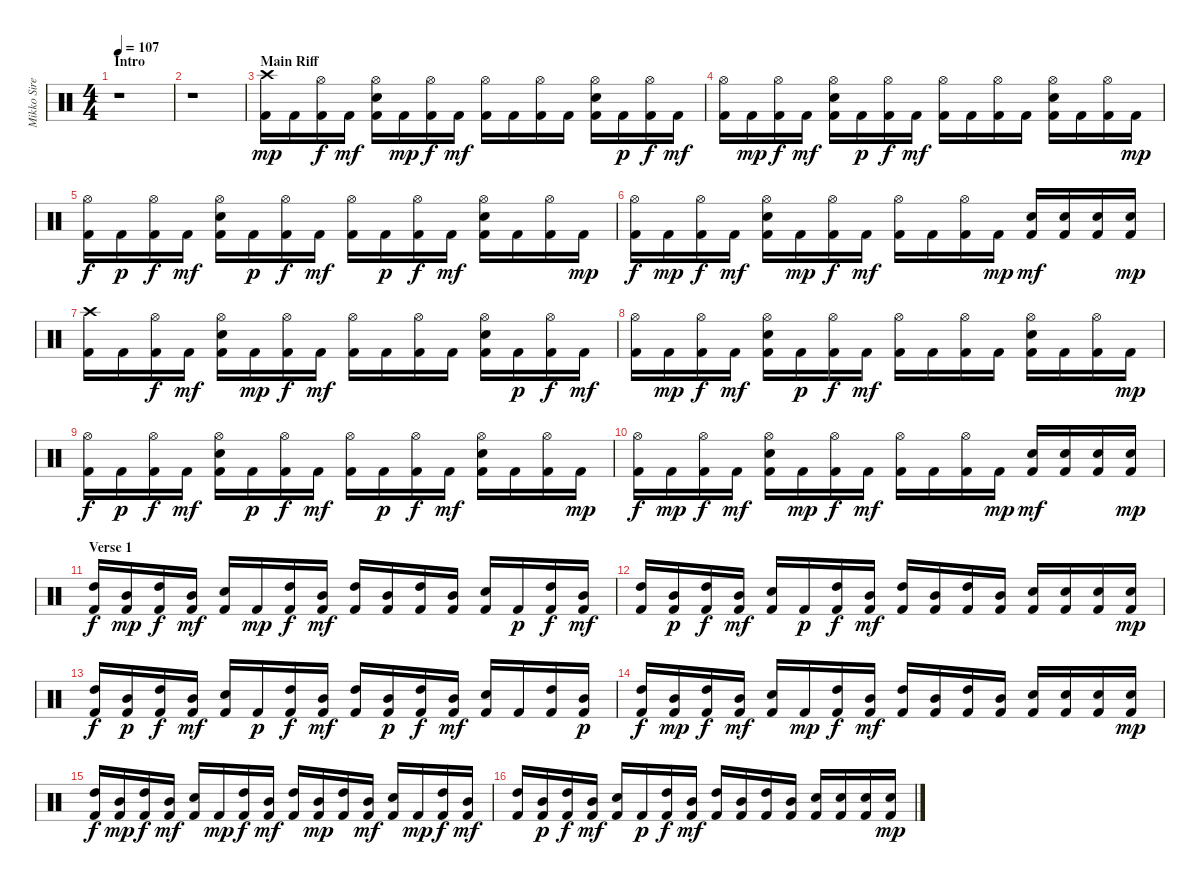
\track ("Mikko Siren" "Mikko Sire") {instrument percussion}
\staff {score}
\articulation defaults
\ts (4 4)
\section ("" "Intro")
\tempo 107
\clef neutral
\ks c
r.1{dy mp} |
r.1 |
\section ("" "Main Riff")
("Kick (hit) 2" "Crash high (hit)").16 "Kick (hit) 2".16 ("Kick (hit) 2" "Hi-Hat (open)").16{dy f} "Kick (hit) 2".16{dy mf} ("Kick (hit) 2" "Electric Snare (hit)" "Hi-Hat (open)").16 "Kick (hit) 2".16{dy mp} ("Kick (hit) 2" "Hi-Hat (open)").16{dy f} "Kick (hit) 2".16{dy mf} ("Kick (hit) 2" "Hi-Hat (open)").16 "Kick (hit) 2".16 ("Kick (hit) 2" "Hi-Hat (open)").16 "Kick (hit) 2".16 ("Kick (hit) 2" "Electric Snare (hit)" "Hi-Hat (open)").16 "Kick (hit) 2".16{dy p} ("Kick (hit) 2" "Hi-Hat (open)").16{dy f} "Kick (hit) 2".16{dy mf} |
("Kick (hit) 2" "Hi-Hat (open)").16 "Kick (hit) 2".16{dy mp} ("Kick (hit) 2" "Hi-Hat (open)").16{dy f} "Kick (hit) 2".16{dy mf} ("Kick (hit) 2" "Electric Snare (hit)" "Hi-Hat (open)").16 "Kick (hit) 2".16{dy p} ("Kick (hit) 2" "Hi-Hat (open)").16{dy f} "Kick (hit) 2".16{dy mf} ("Kick (hit) 2" "Hi-Hat (open)").16 "Kick (hit) 2".16 ("Kick (hit) 2" "Hi-Hat (open)").16 "Kick (hit) 2".16 ("Kick (hit) 2" "Electric Snare (hit)" "Hi-Hat (open)").16 "Kick (hit) 2".16 ("Kick (hit) 2" "Hi-Hat (open)").16 "Kick (hit) 2".16{dy mp} |
("Kick (hit) 2" "Hi-Hat (open)").16{dy f} "Kick (hit) 2".16{dy p} ("Kick (hit) 2" "Hi-Hat (open)").16{dy f} "Kick (hit) 2".16{dy mf} ("Kick (hit) 2" "Electric Snare (hit)" "Hi-Hat (open)").16 "Kick (hit) 2".16{dy p} ("Kick (hit) 2" "Hi-Hat (open)").16{dy f} "Kick (hit) 2".16{dy mf} ("Kick (hit) 2" "Hi-Hat (open)").16 "Kick (hit) 2".16{dy p} ("Kick (hit) 2" "Hi-Hat (open)").16{dy f} "Kick (hit) 2".16{dy mf} ("Kick (hit) 2" "Electric Snare (hit)" "Hi-Hat (open)").16 "Kick (hit) 2".16 ("Kick (hit) 2" "Hi-Hat (open)").16 "Kick (hit) 2".16{dy mp} |
("Kick (hit) 2" "Hi-Hat (open)").16{dy f} "Kick (hit) 2".16{dy mp} ("Kick (hit) 2" "Hi-Hat (open)").16{dy f} "Kick (hit) 2".16{dy mf} ("Kick (hit) 2" "Electric Snare (hit)" "Hi-Hat (open)").16 "Kick (hit) 2".16{dy mp} ("Kick (hit) 2" "Hi-Hat (open)").16{dy f} "Kick (hit) 2".16{dy mf} ("Kick (hit) 2" "Hi-Hat (open)").16 "Kick (hit) 2".16 ("Kick (hit) 2" "Hi-Hat (open)").16 "Kick (hit) 2".16{dy mp} ("Kick (hit) 2" "Electric Snare (hit)").16{dy mf} ("Kick (hit) 2" "Electric Snare (hit)").16 ("Kick (hit) 2" "Electric Snare (hit)").16 ("Kick (hit) 2" "Electric Snare (hit)").16{dy mp} |
("Kick (hit) 2" "Crash high (hit)").16 "Kick (hit) 2".16 ("Kick (hit) 2" "Hi-Hat (open)").16{dy f} "Kick (hit) 2".16{dy mf} ("Kick (hit) 2" "Electric Snare (hit)" "Hi-Hat (open)").16 "Kick (hit) 2".16{dy mp} ("Kick (hit) 2" "Hi-Hat (open)").16{dy f} "Kick (hit) 2".16{dy mf} ("Kick (hit) 2" "Hi-Hat (open)").16 "Kick (hit) 2".16 ("Kick (hit) 2" "Hi-Hat (open)").16 "Kick (hit) 2".16 ("Kick (hit) 2" "Electric Snare (hit)" "Hi-Hat (open)").16 "Kick (hit) 2".16{dy p} ("Kick (hit) 2" "Hi-Hat (open)").16{dy f} "Kick (hit) 2".16{dy mf} |
("Kick (hit) 2" "Hi-Hat (open)").16 "Kick (hit) 2".16{dy mp} ("Kick (hit) 2" "Hi-Hat (open)").16{dy f} "Kick (hit) 2".16{dy mf} ("Kick (hit) 2" "Electric Snare (hit)" "Hi-Hat (open)").16 "Kick (hit) 2".16{dy p} ("Kick (hit) 2" "Hi-Hat (open)").16{dy f} "Kick (hit) 2".16{dy mf} ("Kick (hit) 2" "Hi-Hat (open)").16 "Kick (hit) 2".16 ("Kick (hit) 2" "Hi-Hat (open)").16 "Kick (hit) 2".16 ("Kick (hit) 2" "Electric Snare (hit)" "Hi-Hat (open)").16 "Kick (hit) 2".16 ("Kick (hit) 2" "Hi-Hat (open)").16 "Kick (hit) 2".16{dy mp} |
("Kick (hit) 2" "Hi-Hat (open)").16{dy f} "Kick (hit) 2".16{dy p} ("Kick (hit) 2" "Hi-Hat (open)").16{dy f} "Kick (hit) 2".16{dy mf} ("Kick (hit) 2" "Electric Snare (hit)" "Hi-Hat (open)").16 "Kick (hit) 2".16{dy p} ("Kick (hit) 2" "Hi-Hat (open)").16{dy f} "Kick (hit) 2".16{dy mf} ("Kick (hit) 2" "Hi-Hat (open)").16 "Kick (hit) 2".16{dy p} ("Kick (hit) 2" "Hi-Hat (open)").16{dy f} "Kick (hit) 2".16{dy mf} ("Kick (hit) 2" "Electric Snare (hit)" "Hi-Hat (open)").16 "Kick (hit) 2".16 ("Kick (hit) 2" "Hi-Hat (open)").16 "Kick (hit) 2".16{dy mp} |
("Kick (hit) 2" "Hi-Hat (open)").16{dy f} "Kick (hit) 2".16{dy mp} ("Kick (hit) 2" "Hi-Hat (open)").16{dy f} "Kick (hit) 2".16{dy mf} ("Kick (hit) 2" "Electric Snare (hit)" "Hi-Hat (open)").16 "Kick (hit) 2".16{dy mp} ("Kick (hit) 2" "Hi-Hat (open)").16{dy f} "Kick (hit) 2".16{dy mf} ("Kick (hit) 2" "Hi-Hat (open)").16 "Kick (hit) 2".16 ("Kick (hit) 2" "Hi-Hat (open)").16 "Kick (hit) 2".16{dy mp} ("Kick (hit) 2" "Electric Snare (hit)").16{dy mf} ("Kick (hit) 2" "Electric Snare (hit)").16 ("Kick (hit) 2" "Electric Snare (hit)").16 ("Kick (hit) 2" "Electric Snare (hit)").16{dy mp} |
\section ("" "Verse 1")
("Kick (hit) 2" "High Tom (hit)").16{dy f} ("Kick (hit) 2" "Mid Tom (hit)").16{dy mp} ("Kick (hit) 2" "High Tom (hit)").16{dy f} ("Kick (hit) 2" "Mid Tom (hit)").16{dy mf} ("Kick (hit) 2" "Electric Snare (hit)").16 "Kick (hit) 2".16{dy mp} ("Kick (hit) 2" "High Tom (hit)").16{dy f} ("Kick (hit) 2" "Mid Tom (hit)").16{dy mf} ("Kick (hit) 2" "High Tom (hit)").16 ("Kick (hit) 2" "Mid Tom (hit)").16 ("Kick (hit) 2" "High Tom (hit)").16 ("Kick (hit) 2" "Mid Tom (hit)").16 ("Kick (hit) 2" "Electric Snare (hit)").16 "Kick (hit) 2".16{dy p} ("Kick (hit) 2" "High Tom (hit)").16{dy f} ("Kick (hit) 2" "Mid Tom (hit)").16{dy mf} |
("Kick (hit) 2" "High Tom (hit)").16 ("Kick (hit) 2" "Mid Tom (hit)").16{dy p} ("Kick (hit) 2" "High Tom (hit)").16{dy f} ("Kick (hit) 2" "Mid Tom (hit)").16{dy mf} ("Kick (hit) 2" "Electric Snare (hit)").16 "Kick (hit) 2".16{dy p} ("Kick (hit) 2" "High Tom (hit)").16{dy f} ("Kick (hit) 2" "Mid Tom (hit)").16{dy mf} ("Kick (hit) 2" "High Tom (hit)").16 ("Kick (hit) 2" "Mid Tom (hit)").16 ("Kick (hit) 2" "High Tom (hit)").16 ("Kick (hit) 2" "Mid Tom (hit)").16 ("Kick (hit) 2" "Electric Snare (hit)").16 ("Kick (hit) 2" "Electric Snare (hit)").16 ("Kick (hit) 2" "Electric Snare (hit)").16 ("Kick (hit) 2" "Electric Snare (hit)").16{dy mp} |
("Kick (hit) 2" "High Tom (hit)").16{dy f} ("Kick (hit) 2" "Mid Tom (hit)").16{dy p} ("Kick (hit) 2" "High Tom (hit)").16{dy f} ("Kick (hit) 2" "Mid Tom (hit)").16{dy mf} ("Kick (hit) 2" "Electric Snare (hit)").16 "Kick (hit) 2".16{dy p} ("Kick (hit) 2" "High Tom (hit)").16{dy f} ("Kick (hit) 2" "Mid Tom (hit)").16{dy mf} ("Kick (hit) 2" "High Tom (hit)").16 ("Kick (hit) 2" "Mid Tom (hit)").16{dy p} ("Kick (hit) 2" "High Tom (hit)").16{dy f} ("Kick (hit) 2" "Mid Tom (hit)").16{dy mf} ("Kick (hit) 2" "Electric Snare (hit)").16 "Kick (hit) 2".16 ("Kick (hit) 2" "High Tom (hit)").16 ("Kick (hit) 2" "Mid Tom (hit)").16{dy p} |
("Kick (hit) 2" "High Tom (hit)").16{dy f} ("Kick (hit) 2" "Mid Tom (hit)").16{dy mp} ("Kick (hit) 2" "High Tom (hit)").16{dy f} ("Kick (hit) 2" "Mid Tom (hit)").16{dy mf} ("Kick (hit) 2" "Electric Snare (hit)").16 "Kick (hit) 2".16{dy mp} ("Kick (hit) 2" "High Tom (hit)").16{dy f} ("Kick (hit) 2" "Mid Tom (hit)").16{dy mf} ("Kick (hit) 2" "High Tom (hit)").16 ("Kick (hit) 2" "Mid Tom (hit)").16 ("Kick (hit) 2" "High Tom (hit)").16 ("Kick (hit) 2" "Mid Tom (hit)").16 ("Kick (hit) 2" "Electric Snare (hit)").16 ("Kick (hit) 2" "Electric Snare (hit)").16 ("Kick (hit) 2" "Electric Snare (hit)").16 ("Kick (hit) 2" "Electric Snare (hit)").16{dy mp} |
("Kick (hit) 2" "High Tom (hit)").16{dy f} ("Kick (hit) 2" "Mid Tom (hit)").16{dy mp} ("Kick (hit) 2" "High Tom (hit)").16{dy f} ("Kick (hit) 2" "Mid Tom (hit)").16{dy mf} ("Kick (hit) 2" "Electric Snare (hit)").16 "Kick (hit) 2".16{dy mp} ("Kick (hit) 2" "High Tom (hit)").16{dy f} ("Kick (hit) 2" "Mid Tom (hit)").16{dy mf} ("Kick (hit) 2" "High Tom (hit)").16 ("Kick (hit) 2" "Mid Tom (hit)").16{dy mp} ("Kick (hit) 2" "High Tom (hit)").16 ("Kick (hit) 2" "Mid Tom (hit)").16{dy mf} ("Kick (hit) 2" "Electric Snare (hit)").16 "Kick (hit) 2".16{dy mp} ("Kick (hit) 2" "High Tom (hit)").16{dy f} ("Kick (hit) 2" "Mid Tom (hit)").16{dy mf} |
("Kick (hit) 2" "High Tom (hit)").16 ("Kick (hit) 2" "Mid Tom (hit)").16{dy p} ("Kick (hit) 2" "High Tom (hit)").16{dy f} ("Kick (hit) 2" "Mid Tom (hit)").16{dy mf} ("Kick (hit) 2" "Electric Snare (hit)").16 "Kick (hit) 2".16{dy p} ("Kick (hit) 2" "High Tom (hit)").16{dy f} ("Kick (hit) 2" "Mid Tom (hit)").16{dy mf} ("Kick (hit) 2" "High Tom (hit)").16 ("Kick (hit) 2" "Mid Tom (hit)").16 ("Kick (hit) 2" "High Tom (hit)").16 ("Kick (hit) 2" "Mid Tom (hit)").16 ("Kick (hit) 2" "Electric Snare (hit)").16 ("Kick (hit) 2" "Electric Snare (hit)").16 ("Kick (hit) 2" "Electric Snare (hit)").16 ("Kick (hit) 2" "Electric Snare (hit)").16{dy mp}
